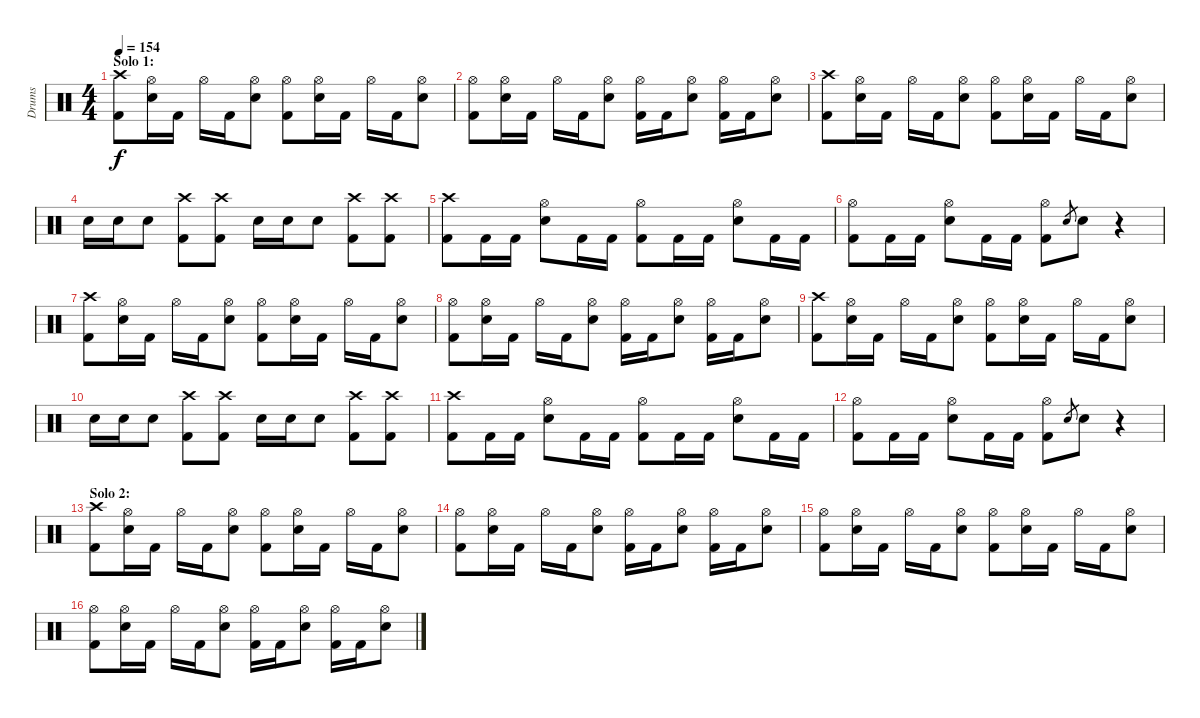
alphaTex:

\track ("Drums" "Drums") {instrument percussion}
\staff {score}
\articulation defaults
\ts (4 4)
\section ("" "Solo 1:")
\tempo 154
\clef neutral
\ks c
("Crash high (hit)" "Kick (hit) 2").8{dy f} ("Hi-Hat (open)" "Snare (hit) 2").16 "Kick (hit) 2".16 "Hi-Hat (open)".16 "Kick (hit) 2".16 ("Hi-Hat (open)" "Snare (hit) 2").8 ("Hi-Hat (open)" "Kick (hit) 2").8 ("Hi-Hat (open)" "Snare (hit) 2").16 "Kick (hit) 2".16 "Hi-Hat (open)".16 "Kick (hit) 2".16 ("Hi-Hat (open)" "Snare (hit) 2").8 |
("Hi-Hat (open)" "Kick (hit) 2").8 ("Hi-Hat (open)" "Snare (hit) 2").16 "Kick (hit) 2".16 "Hi-Hat (open)".16 "Kick (hit) 2".16 ("Hi-Hat (open)" "Snare (hit) 2").8 ("Hi-Hat (open)" "Kick (hit) 2").16 "Kick (hit) 2".16 ("Hi-Hat (open)" "Snare (hit) 2").8 ("Hi-Hat (open)" "Kick (hit) 2").16 "Kick (hit) 2".16 ("Hi-Hat (open)" "Snare (hit) 2").8 |
("Crash high (hit)" "Kick (hit) 2").8 ("Hi-Hat (open)" "Snare (hit) 2").16 "Kick (hit) 2".16 "Hi-Hat (open)".16 "Kick (hit) 2".16 ("Hi-Hat (open)" "Snare (hit) 2").8 ("Hi-Hat (open)" "Kick (hit) 2").8 ("Hi-Hat (open)" "Snare (hit) 2").16 "Kick (hit) 2".16 "Hi-Hat (open)".16 "Kick (hit) 2".16 ("Hi-Hat (open)" "Snare (hit) 2").8 |
"Snare (hit) 2".16 "Snare (hit) 2".16 "Snare (hit) 2".8 ("Crash high (hit)" "Kick (hit) 2").8 ("Crash high (hit)" "Kick (hit) 2").8 "Snare (hit) 2".16 "Snare (hit) 2".16 "Snare (hit) 2".8 ("Crash high (hit)" "Kick (hit) 2").8 ("Crash high (hit)" "Kick (hit) 2").8 |
("Crash high (hit)" "Kick (hit) 2").8 "Kick (hit) 2".16 "Kick (hit) 2".16 ("Hi-Hat (open)" "Snare (hit) 2").8 "Kick (hit) 2".16 "Kick (hit) 2".16 ("Hi-Hat (open)" "Kick (hit) 2").8 "Kick (hit) 2".16 "Kick (hit) 2".16 ("Hi-Hat (open)" "Snare (hit) 2").8 "Kick (hit) 2".16 "Kick (hit) 2".16 |
("Hi-Hat (open)" "Kick (hit) 2").8 "Kick (hit) 2".16 "Kick (hit) 2".16 ("Hi-Hat (open)" "Snare (hit) 2").8 "Kick (hit) 2".16 "Kick (hit) 2".16 ("Hi-Hat (open)" "Kick (hit) 2").8 "Snare (hit) 2".8{gr} "Snare (hit) 2".8 r.4 |
("Crash high (hit)" "Kick (hit) 2").8 ("Hi-Hat (open)" "Snare (hit) 2").16 "Kick (hit) 2".16 "Hi-Hat (open)".16 "Kick (hit) 2".16 ("Hi-Hat (open)" "Snare (hit) 2").8 ("Hi-Hat (open)" "Kick (hit) 2").8 ("Hi-Hat (open)" "Snare (hit) 2").16 "Kick (hit) 2".16 "Hi-Hat (open)".16 "Kick (hit) 2".16 ("Hi-Hat (open)" "Snare (hit) 2").8 |
("Hi-Hat (open)" "Kick (hit) 2").8 ("Hi-Hat (open)" "Snare (hit) 2").16 "Kick (hit) 2".16 "Hi-Hat (open)".16 "Kick (hit) 2".16 ("Hi-Hat (open)" "Snare (hit) 2").8 ("Hi-Hat (open)" "Kick (hit) 2").16 "Kick (hit) 2".16 ("Hi-Hat (open)" "Snare (hit) 2").8 ("Hi-Hat (open)" "Kick (hit) 2").16 "Kick (hit) 2".16 ("Hi-Hat (open)" "Snare (hit) 2").8 |
("Crash high (hit)" "Kick (hit) 2").8 ("Hi-Hat (open)" "Snare (hit) 2").16 "Kick (hit) 2".16 "Hi-Hat (open)".16 "Kick (hit) 2".16 ("Hi-Hat (open)" "Snare (hit) 2").8 ("Hi-Hat (open)" "Kick (hit) 2").8 ("Hi-Hat (open)" "Snare (hit) 2").16 "Kick (hit) 2".16 "Hi-Hat (open)".16 "Kick (hit) 2".16 ("Hi-Hat (open)" "Snare (hit) 2").8 |
"Snare (hit) 2".16 "Snare (hit) 2".16 "Snare (hit) 2".8 ("Crash high (hit)" "Kick (hit) 2").8 ("Crash high (hit)" "Kick (hit) 2").8 "Snare (hit) 2".16 "Snare (hit) 2".16 "Snare (hit) 2".8 ("Crash high (hit)" "Kick (hit) 2").8 ("Crash high (hit)" "Kick (hit) 2").8 |
("Crash high (hit)" "Kick (hit) 2").8 "Kick (hit) 2".16 "Kick (hit) 2".16 ("Hi-Hat (open)" "Snare (hit) 2").8 "Kick (hit) 2".16 "Kick (hit) 2".16 ("Hi-Hat (open)" "Kick (hit) 2").8 "Kick (hit) 2".16 "Kick (hit) 2".16 ("Hi-Hat (open)" "Snare (hit) 2").8 "Kick (hit) 2".16 "Kick (hit) 2".16 |
("Hi-Hat (open)" "Kick (hit) 2").8 "Kick (hit) 2".16 "Kick (hit) 2".16 ("Hi-Hat (open)" "Snare (hit) 2").8 "Kick (hit) 2".16 "Kick (hit) 2".16 ("Hi-Hat (open)" "Kick (hit) 2").8 "Snare (hit) 2".8{gr} "Snare (hit) 2".8 r.4 |
\section ("" "Solo 2:")
("Crash high (hit)" "Kick (hit) 2").8 ("Hi-Hat (open)" "Snare (hit) 2").16 "Kick (hit) 2".16 "Hi-Hat (open)".16 "Kick (hit) 2".16 ("Hi-Hat (open)" "Snare (hit) 2").8 ("Hi-Hat (open)" "Kick (hit) 2").8 ("Hi-Hat (open)" "Snare (hit) 2").16 "Kick (hit) 2".16 "Hi-Hat (open)".16 "Kick (hit) 2".16 ("Hi-Hat (open)" "Snare (hit) 2").8 |
("Hi-Hat (open)" "Kick (hit) 2").8 ("Hi-Hat (open)" "Snare (hit) 2").16 "Kick (hit) 2".16 "Hi-Hat (open)".16 "Kick (hit) 2".16 ("Hi-Hat (open)" "Snare (hit) 2").8 ("Hi-Hat (open)" "Kick (hit) 2").16 "Kick (hit) 2".16 ("Hi-Hat (open)" "Snare (hit) 2").8 ("Hi-Hat (open)" "Kick (hit) 2").16 "Kick (hit) 2".16 ("Hi-Hat (open)" "Snare (hit) 2").8 |
("Hi-Hat (open)" "Kick (hit) 2").8 ("Hi-Hat (open)" "Snare (hit) 2").16 "Kick (hit) 2".16 "Hi-Hat (open)".16 "Kick (hit) 2".16 ("Hi-Hat (open)" "Snare (hit) 2").8 ("Hi-Hat (open)" "Kick (hit) 2").8 ("Hi-Hat (open)" "Snare (hit) 2").16 "Kick (hit) 2".16 "Hi-Hat (open)".16 "Kick (hit) 2".16 ("Hi-Hat (open)" "Snare (hit) 2").8 |
("Hi-Hat (open)" "Kick (hit) 2").8 ("Hi-Hat (open)" "Snare (hit) 2").16 "Kick (hit) 2".16 "Hi-Hat (open)".16 "Kick (hit) 2".16 ("Hi-Hat (open)" "Snare (hit) 2").8 ("Hi-Hat (open)" "Kick (hit) 2").16 "Kick (hit) 2".16 ("Hi-Hat (open)" "Snare (hit) 2").8 ("Hi-Hat (open)" "Kick (hit) 2").16 "Kick (hit) 2".16 ("Hi-Hat (open)" "Snare (hit) 2").8
